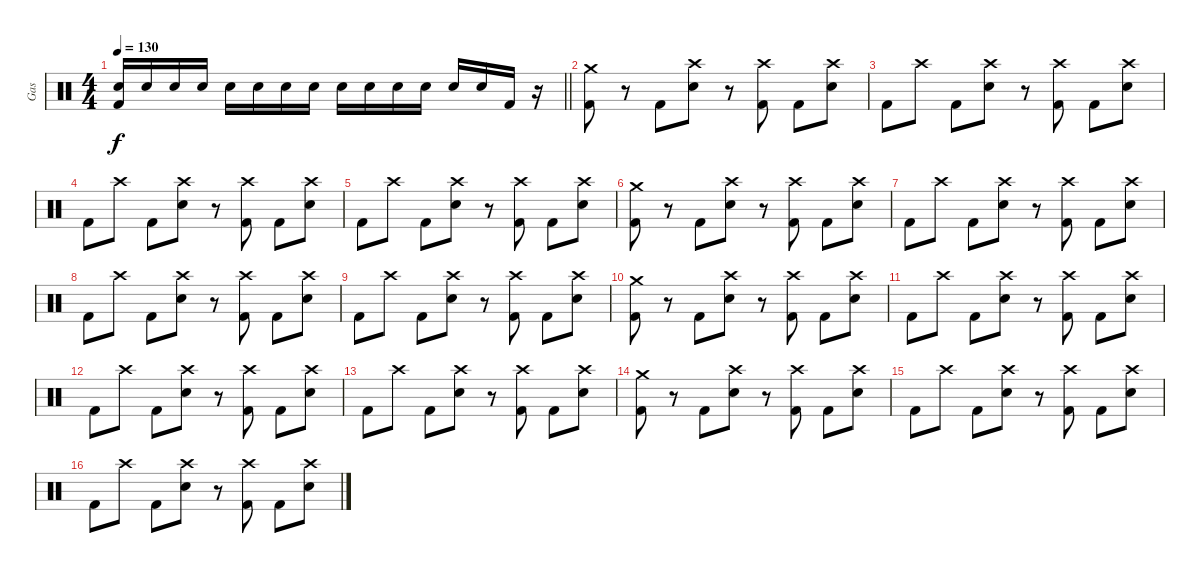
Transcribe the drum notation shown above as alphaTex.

\track ("Gas" "Gas") {instrument percussion}
\staff {score}
\articulation defaults
\ts (4 4)
\tempo 130
\clef neutral
\barLineRight lightlight
\ks c
("Kick (hit) 2" "Electric Snare (hit)").16{dy f} "Electric Snare (hit)".16 "Electric Snare (hit)".16 "Electric Snare (hit)".16 "Electric Snare (hit)".16 "Electric Snare (hit)".16 "Electric Snare (hit)".16 "Electric Snare (hit)".16 "Electric Snare (hit)".16 "Electric Snare (hit)".16 "Electric Snare (hit)".16 "Electric Snare (hit)".16 "Electric Snare (hit)".16 "Electric Snare (hit)".16 "Kick (hit) 2".16 r.16 |
("Crash medium (hit)" "Kick (hit) 2").8 r.8 "Kick (hit) 2".8 ("Crash high (hit)" "Electric Snare (hit)").8 r.8 ("Crash high (hit)" "Kick (hit) 2").8 "Kick (hit) 2".8 ("Crash high (hit)" "Electric Snare (hit)").8 |
"Kick (hit) 2".8 "Crash high (hit)".8 "Kick (hit) 2".8 ("Electric Snare (hit)" "Crash high (hit)").8 r.8 ("Kick (hit) 2" "Crash high (hit)").8 "Kick (hit) 2".8 ("Electric Snare (hit)" "Crash high (hit)").8 |
"Kick (hit) 2".8 "Crash high (hit)".8 "Kick (hit) 2".8 ("Crash high (hit)" "Electric Snare (hit)").8 r.8 ("Crash high (hit)" "Kick (hit) 2").8 "Kick (hit) 2".8 ("Crash high (hit)" "Electric Snare (hit)").8 |
"Kick (hit) 2".8 "Crash high (hit)".8 "Kick (hit) 2".8 ("Electric Snare (hit)" "Crash high (hit)").8 r.8 ("Kick (hit) 2" "Crash high (hit)").8 "Kick (hit) 2".8 ("Electric Snare (hit)" "Crash high (hit)").8 |
("Crash medium (hit)" "Kick (hit) 2").8 r.8 "Kick (hit) 2".8 ("Crash high (hit)" "Electric Snare (hit)").8 r.8 ("Crash high (hit)" "Kick (hit) 2").8 "Kick (hit) 2".8 ("Crash high (hit)" "Electric Snare (hit)").8 |
"Kick (hit) 2".8 "Crash high (hit)".8 "Kick (hit) 2".8 ("Electric Snare (hit)" "Crash high (hit)").8 r.8 ("Kick (hit) 2" "Crash high (hit)").8 "Kick (hit) 2".8 ("Electric Snare (hit)" "Crash high (hit)").8 |
"Kick (hit) 2".8 "Crash high (hit)".8 "Kick (hit) 2".8 ("Crash high (hit)" "Electric Snare (hit)").8 r.8 ("Crash high (hit)" "Kick (hit) 2").8 "Kick (hit) 2".8 ("Crash high (hit)" "Electric Snare (hit)").8 |
"Kick (hit) 2".8 "Crash high (hit)".8 "Kick (hit) 2".8 ("Electric Snare (hit)" "Crash high (hit)").8 r.8 ("Crash high (hit)" "Kick (hit) 2").8 "Kick (hit) 2".8 ("Crash high (hit)" "Electric Snare (hit)").8 |
("Crash medium (hit)" "Kick (hit) 2").8 r.8 "Kick (hit) 2".8 ("Crash high (hit)" "Electric Snare (hit)").8 r.8 ("Crash high (hit)" "Kick (hit) 2").8 "Kick (hit) 2".8 ("Crash high (hit)" "Electric Snare (hit)").8 |
"Kick (hit) 2".8 "Crash high (hit)".8 "Kick (hit) 2".8 ("Electric Snare (hit)" "Crash high (hit)").8 r.8 ("Kick (hit) 2" "Crash high (hit)").8 "Kick (hit) 2".8 ("Electric Snare (hit)" "Crash high (hit)").8 |
"Kick (hit) 2".8 "Crash high (hit)".8 "Kick (hit) 2".8 ("Crash high (hit)" "Electric Snare (hit)").8 r.8 ("Crash high (hit)" "Kick (hit) 2").8 "Kick (hit) 2".8 ("Crash high (hit)" "Electric Snare (hit)").8 |
"Kick (hit) 2".8 "Crash high (hit)".8 "Kick (hit) 2".8 ("Electric Snare (hit)" "Crash high (hit)").8 r.8 ("Kick (hit) 2" "Crash high (hit)").8 "Kick (hit) 2".8 ("Electric Snare (hit)" "Crash high (hit)").8 |
("Crash medium (hit)" "Kick (hit) 2").8 r.8 "Kick (hit) 2".8 ("Crash high (hit)" "Electric Snare (hit)").8 r.8 ("Crash high (hit)" "Kick (hit) 2").8 "Kick (hit) 2".8 ("Crash high (hit)" "Electric Snare (hit)").8 |
"Kick (hit) 2".8 "Crash high (hit)".8 "Kick (hit) 2".8 ("Electric Snare (hit)" "Crash high (hit)").8 r.8 ("Kick (hit) 2" "Crash high (hit)").8 "Kick (hit) 2".8 ("Electric Snare (hit)" "Crash high (hit)").8 |
"Kick (hit) 2".8 "Crash high (hit)".8 "Kick (hit) 2".8 ("Crash high (hit)" "Electric Snare (hit)").8 r.8 ("Crash high (hit)" "Kick (hit) 2").8 "Kick (hit) 2".8 ("Crash high (hit)" "Electric Snare (hit)").8
